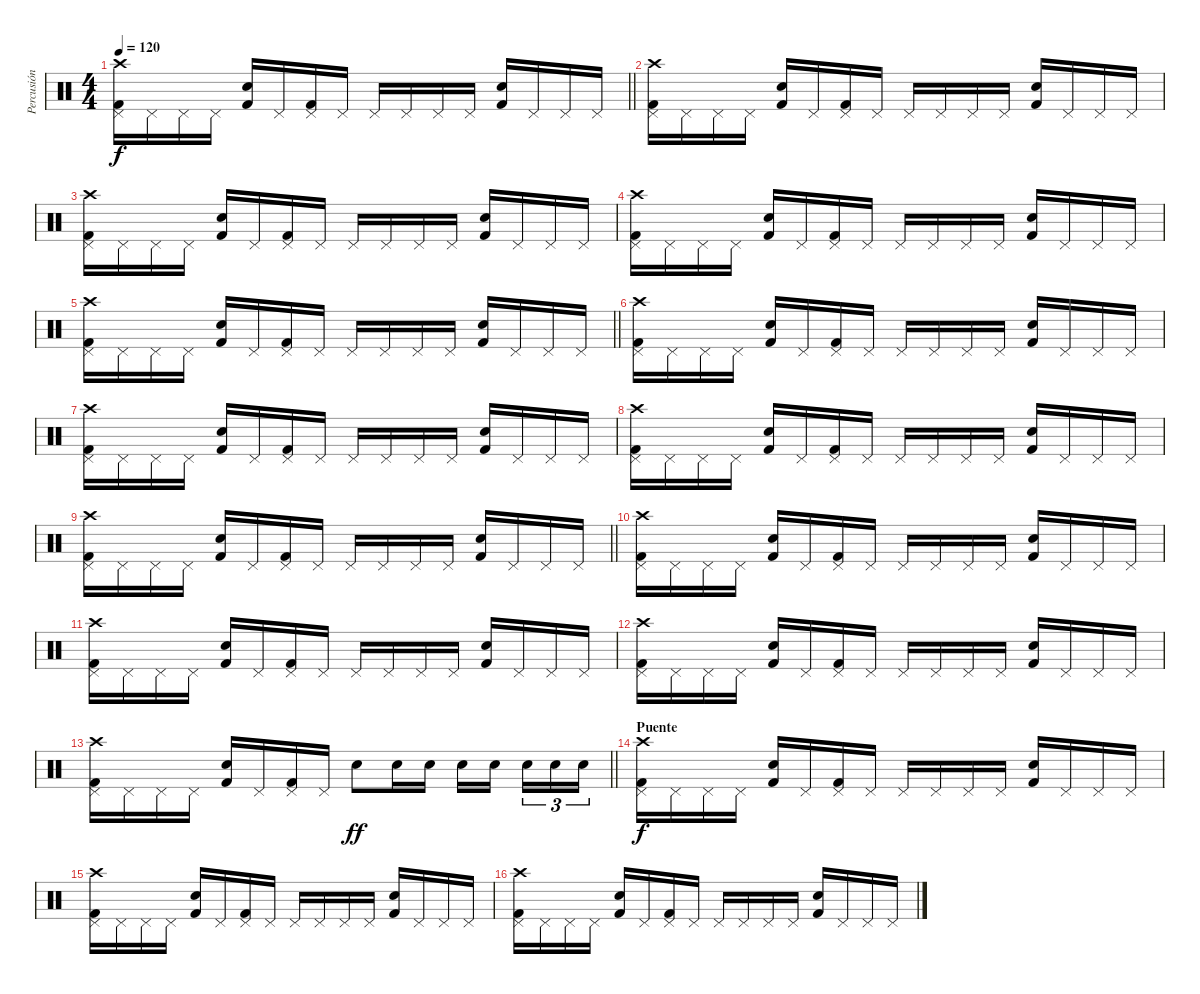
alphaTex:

\track ("Percusión" "Percusión") {instrument percussion}
\staff {score}
\articulation defaults
\ts (4 4)
\tempo 120
\clef neutral
\barLineRight lightlight
\ks c
("Pedal Hi-Hat (hit)" "Kick (hit) 2" "Crash high (hit)").16{dy f} "Pedal Hi-Hat (hit)".16 "Pedal Hi-Hat (hit)".16 "Pedal Hi-Hat (hit)".16 ("Snare (hit) 2" "Kick (hit) 2").16 "Pedal Hi-Hat (hit)".16 ("Pedal Hi-Hat (hit)" "Kick (hit) 2").16 "Pedal Hi-Hat (hit)".16 "Pedal Hi-Hat (hit)".16 "Pedal Hi-Hat (hit)".16 "Pedal Hi-Hat (hit)".16 "Pedal Hi-Hat (hit)".16 ("Snare (hit) 2" "Kick (hit) 2").16 "Pedal Hi-Hat (hit)".16 "Pedal Hi-Hat (hit)".16 "Pedal Hi-Hat (hit)".16 |
("Pedal Hi-Hat (hit)" "Kick (hit) 2" "Crash high (hit)").16 "Pedal Hi-Hat (hit)".16 "Pedal Hi-Hat (hit)".16 "Pedal Hi-Hat (hit)".16 ("Snare (hit) 2" "Kick (hit) 2").16 "Pedal Hi-Hat (hit)".16 ("Pedal Hi-Hat (hit)" "Kick (hit) 2").16 "Pedal Hi-Hat (hit)".16 "Pedal Hi-Hat (hit)".16 "Pedal Hi-Hat (hit)".16 "Pedal Hi-Hat (hit)".16 "Pedal Hi-Hat (hit)".16 ("Snare (hit) 2" "Kick (hit) 2").16 "Pedal Hi-Hat (hit)".16 "Pedal Hi-Hat (hit)".16 "Pedal Hi-Hat (hit)".16 |
("Pedal Hi-Hat (hit)" "Kick (hit) 2" "Crash high (hit)").16 "Pedal Hi-Hat (hit)".16 "Pedal Hi-Hat (hit)".16 "Pedal Hi-Hat (hit)".16 ("Snare (hit) 2" "Kick (hit) 2").16 "Pedal Hi-Hat (hit)".16 ("Pedal Hi-Hat (hit)" "Kick (hit) 2").16 "Pedal Hi-Hat (hit)".16 "Pedal Hi-Hat (hit)".16 "Pedal Hi-Hat (hit)".16 "Pedal Hi-Hat (hit)".16 "Pedal Hi-Hat (hit)".16 ("Snare (hit) 2" "Kick (hit) 2").16 "Pedal Hi-Hat (hit)".16 "Pedal Hi-Hat (hit)".16 "Pedal Hi-Hat (hit)".16 |
("Pedal Hi-Hat (hit)" "Kick (hit) 2" "Crash high (hit)").16 "Pedal Hi-Hat (hit)".16 "Pedal Hi-Hat (hit)".16 "Pedal Hi-Hat (hit)".16 ("Snare (hit) 2" "Kick (hit) 2").16 "Pedal Hi-Hat (hit)".16 ("Pedal Hi-Hat (hit)" "Kick (hit) 2").16 "Pedal Hi-Hat (hit)".16 "Pedal Hi-Hat (hit)".16 "Pedal Hi-Hat (hit)".16 "Pedal Hi-Hat (hit)".16 "Pedal Hi-Hat (hit)".16 ("Snare (hit) 2" "Kick (hit) 2").16 "Pedal Hi-Hat (hit)".16 "Pedal Hi-Hat (hit)".16 "Pedal Hi-Hat (hit)".16 |
\barLineRight lightlight
("Pedal Hi-Hat (hit)" "Kick (hit) 2" "Crash high (hit)").16 "Pedal Hi-Hat (hit)".16 "Pedal Hi-Hat (hit)".16 "Pedal Hi-Hat (hit)".16 ("Snare (hit) 2" "Kick (hit) 2").16 "Pedal Hi-Hat (hit)".16 ("Pedal Hi-Hat (hit)" "Kick (hit) 2").16 "Pedal Hi-Hat (hit)".16 "Pedal Hi-Hat (hit)".16 "Pedal Hi-Hat (hit)".16 "Pedal Hi-Hat (hit)".16 "Pedal Hi-Hat (hit)".16 ("Snare (hit) 2" "Kick (hit) 2").16 "Pedal Hi-Hat (hit)".16 "Pedal Hi-Hat (hit)".16 "Pedal Hi-Hat (hit)".16 |
("Pedal Hi-Hat (hit)" "Kick (hit) 2" "Crash high (hit)").16 "Pedal Hi-Hat (hit)".16 "Pedal Hi-Hat (hit)".16 "Pedal Hi-Hat (hit)".16 ("Snare (hit) 2" "Kick (hit) 2").16 "Pedal Hi-Hat (hit)".16 ("Pedal Hi-Hat (hit)" "Kick (hit) 2").16 "Pedal Hi-Hat (hit)".16 "Pedal Hi-Hat (hit)".16 "Pedal Hi-Hat (hit)".16 "Pedal Hi-Hat (hit)".16 "Pedal Hi-Hat (hit)".16 ("Snare (hit) 2" "Kick (hit) 2").16 "Pedal Hi-Hat (hit)".16 "Pedal Hi-Hat (hit)".16 "Pedal Hi-Hat (hit)".16 |
("Pedal Hi-Hat (hit)" "Kick (hit) 2" "Crash high (hit)").16 "Pedal Hi-Hat (hit)".16 "Pedal Hi-Hat (hit)".16 "Pedal Hi-Hat (hit)".16 ("Snare (hit) 2" "Kick (hit) 2").16 "Pedal Hi-Hat (hit)".16 ("Pedal Hi-Hat (hit)" "Kick (hit) 2").16 "Pedal Hi-Hat (hit)".16 "Pedal Hi-Hat (hit)".16 "Pedal Hi-Hat (hit)".16 "Pedal Hi-Hat (hit)".16 "Pedal Hi-Hat (hit)".16 ("Snare (hit) 2" "Kick (hit) 2").16 "Pedal Hi-Hat (hit)".16 "Pedal Hi-Hat (hit)".16 "Pedal Hi-Hat (hit)".16 |
("Pedal Hi-Hat (hit)" "Kick (hit) 2" "Crash high (hit)").16 "Pedal Hi-Hat (hit)".16 "Pedal Hi-Hat (hit)".16 "Pedal Hi-Hat (hit)".16 ("Snare (hit) 2" "Kick (hit) 2").16 "Pedal Hi-Hat (hit)".16 ("Pedal Hi-Hat (hit)" "Kick (hit) 2").16 "Pedal Hi-Hat (hit)".16 "Pedal Hi-Hat (hit)".16 "Pedal Hi-Hat (hit)".16 "Pedal Hi-Hat (hit)".16 "Pedal Hi-Hat (hit)".16 ("Snare (hit) 2" "Kick (hit) 2").16 "Pedal Hi-Hat (hit)".16 "Pedal Hi-Hat (hit)".16 "Pedal Hi-Hat (hit)".16 |
\barLineRight lightlight
("Pedal Hi-Hat (hit)" "Kick (hit) 2" "Crash high (hit)").16 "Pedal Hi-Hat (hit)".16 "Pedal Hi-Hat (hit)".16 "Pedal Hi-Hat (hit)".16 ("Snare (hit) 2" "Kick (hit) 2").16 "Pedal Hi-Hat (hit)".16 ("Pedal Hi-Hat (hit)" "Kick (hit) 2").16 "Pedal Hi-Hat (hit)".16 "Pedal Hi-Hat (hit)".16 "Pedal Hi-Hat (hit)".16 "Pedal Hi-Hat (hit)".16 "Pedal Hi-Hat (hit)".16 ("Snare (hit) 2" "Kick (hit) 2").16 "Pedal Hi-Hat (hit)".16 "Pedal Hi-Hat (hit)".16 "Pedal Hi-Hat (hit)".16 |
("Pedal Hi-Hat (hit)" "Kick (hit) 2" "Crash high (hit)").16 "Pedal Hi-Hat (hit)".16 "Pedal Hi-Hat (hit)".16 "Pedal Hi-Hat (hit)".16 ("Snare (hit) 2" "Kick (hit) 2").16 "Pedal Hi-Hat (hit)".16 ("Pedal Hi-Hat (hit)" "Kick (hit) 2").16 "Pedal Hi-Hat (hit)".16 "Pedal Hi-Hat (hit)".16 "Pedal Hi-Hat (hit)".16 "Pedal Hi-Hat (hit)".16 "Pedal Hi-Hat (hit)".16 ("Snare (hit) 2" "Kick (hit) 2").16 "Pedal Hi-Hat (hit)".16 "Pedal Hi-Hat (hit)".16 "Pedal Hi-Hat (hit)".16 |
("Pedal Hi-Hat (hit)" "Kick (hit) 2" "Crash high (hit)").16 "Pedal Hi-Hat (hit)".16 "Pedal Hi-Hat (hit)".16 "Pedal Hi-Hat (hit)".16 ("Snare (hit) 2" "Kick (hit) 2").16 "Pedal Hi-Hat (hit)".16 ("Pedal Hi-Hat (hit)" "Kick (hit) 2").16 "Pedal Hi-Hat (hit)".16 "Pedal Hi-Hat (hit)".16 "Pedal Hi-Hat (hit)".16 "Pedal Hi-Hat (hit)".16 "Pedal Hi-Hat (hit)".16 ("Snare (hit) 2" "Kick (hit) 2").16 "Pedal Hi-Hat (hit)".16 "Pedal Hi-Hat (hit)".16 "Pedal Hi-Hat (hit)".16 |
("Pedal Hi-Hat (hit)" "Kick (hit) 2" "Crash high (hit)").16 "Pedal Hi-Hat (hit)".16 "Pedal Hi-Hat (hit)".16 "Pedal Hi-Hat (hit)".16 ("Snare (hit) 2" "Kick (hit) 2").16 "Pedal Hi-Hat (hit)".16 ("Pedal Hi-Hat (hit)" "Kick (hit) 2").16 "Pedal Hi-Hat (hit)".16 "Pedal Hi-Hat (hit)".16 "Pedal Hi-Hat (hit)".16 "Pedal Hi-Hat (hit)".16 "Pedal Hi-Hat (hit)".16 ("Snare (hit) 2" "Kick (hit) 2").16 "Pedal Hi-Hat (hit)".16 "Pedal Hi-Hat (hit)".16 "Pedal Hi-Hat (hit)".16 |
\barLineRight lightlight
("Pedal Hi-Hat (hit)" "Kick (hit) 2" "Crash high (hit)").16 "Pedal Hi-Hat (hit)".16 "Pedal Hi-Hat (hit)".16 "Pedal Hi-Hat (hit)".16 ("Snare (hit) 2" "Kick (hit) 2").16 "Pedal Hi-Hat (hit)".16 ("Pedal Hi-Hat (hit)" "Kick (hit) 2").16 "Pedal Hi-Hat (hit)".16 "Snare (hit) 2".8{dy ff} "Snare (hit) 2".16 "Snare (hit) 2".16 "Snare (hit) 2".16 "Snare (hit) 2".16{beam splitsecondary} "Snare (hit) 2".16{tu (3 2)} "Snare (hit) 2".16{tu (3 2)} "Snare (hit) 2".16{tu (3 2)} |
\section ("" "Puente")
("Pedal Hi-Hat (hit)" "Kick (hit) 2" "Crash high (hit)").16{dy f} "Pedal Hi-Hat (hit)".16 "Pedal Hi-Hat (hit)".16 "Pedal Hi-Hat (hit)".16 ("Snare (hit) 2" "Kick (hit) 2").16 "Pedal Hi-Hat (hit)".16 ("Pedal Hi-Hat (hit)" "Kick (hit) 2").16 "Pedal Hi-Hat (hit)".16 "Pedal Hi-Hat (hit)".16 "Pedal Hi-Hat (hit)".16 "Pedal Hi-Hat (hit)".16 "Pedal Hi-Hat (hit)".16 ("Snare (hit) 2" "Kick (hit) 2").16 "Pedal Hi-Hat (hit)".16 "Pedal Hi-Hat (hit)".16 "Pedal Hi-Hat (hit)".16 |
("Pedal Hi-Hat (hit)" "Kick (hit) 2" "Crash high (hit)").16 "Pedal Hi-Hat (hit)".16 "Pedal Hi-Hat (hit)".16 "Pedal Hi-Hat (hit)".16 ("Snare (hit) 2" "Kick (hit) 2").16 "Pedal Hi-Hat (hit)".16 ("Pedal Hi-Hat (hit)" "Kick (hit) 2").16 "Pedal Hi-Hat (hit)".16 "Pedal Hi-Hat (hit)".16 "Pedal Hi-Hat (hit)".16 "Pedal Hi-Hat (hit)".16 "Pedal Hi-Hat (hit)".16 ("Snare (hit) 2" "Kick (hit) 2").16 "Pedal Hi-Hat (hit)".16 "Pedal Hi-Hat (hit)".16 "Pedal Hi-Hat (hit)".16 |
("Pedal Hi-Hat (hit)" "Kick (hit) 2" "Crash high (hit)").16 "Pedal Hi-Hat (hit)".16 "Pedal Hi-Hat (hit)".16 "Pedal Hi-Hat (hit)".16 ("Snare (hit) 2" "Kick (hit) 2").16 "Pedal Hi-Hat (hit)".16 ("Pedal Hi-Hat (hit)" "Kick (hit) 2").16 "Pedal Hi-Hat (hit)".16 "Pedal Hi-Hat (hit)".16 "Pedal Hi-Hat (hit)".16 "Pedal Hi-Hat (hit)".16 "Pedal Hi-Hat (hit)".16 ("Snare (hit) 2" "Kick (hit) 2").16 "Pedal Hi-Hat (hit)".16 "Pedal Hi-Hat (hit)".16 "Pedal Hi-Hat (hit)".16
